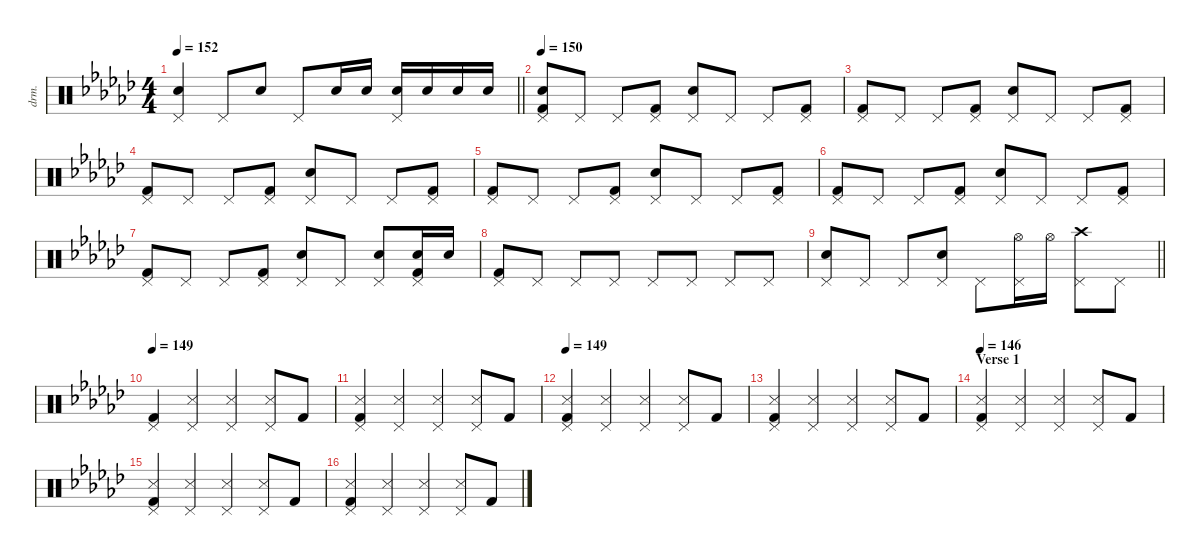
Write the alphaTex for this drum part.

\defaultSystemsLayout 4
\hideDynamics
\bracketExtendMode nobrackets
\otherSystemsTrackNameOrientation horizontal
\track ("Drums" "drm.") {defaultSystemsLayout 4 instrument percussion}
\staff {score}
\articulation defaults
\ts (4 4)
\tempo 152
\clef neutral
\barLineRight lightlight
\ks gb
("Pedal Hi-Hat (hit)"{acc forcenatural} "Snare (hit) 2"{acc forcenatural}).4{dy f beam Up} "Pedal Hi-Hat (hit)"{acc forcenatural}.8{beam Up} "Snare (hit) 2"{acc forcenatural}.8{dy mf beam Up} "Pedal Hi-Hat (hit)"{acc forcenatural}.8{dy f beam Up} "Snare (hit) 2"{acc forcenatural}.16{dy p beam Up} "Snare (hit) 2"{acc forcenatural}.16{dy mp beam Up} ("Pedal Hi-Hat (hit)"{acc forcenatural} "Snare (hit) 2"{acc forcenatural}).16{dy f beam Up} "Snare (hit) 2"{acc forcenatural}.16{dy mf beam Up} "Snare (hit) 2"{acc forcenatural}.16{dy f beam Up} "Snare (hit) 2"{acc forcenatural}.16{dy ff beam Up} |
\tempo 150
("Pedal Hi-Hat (hit)"{acc forcenatural} "Kick (hit) 2"{acc forcenatural} "Snare (hit) 2"{acc forcenatural}).8{dy f beam Up} "Pedal Hi-Hat (hit)"{acc forcenatural}.8{dy mp beam Up} "Pedal Hi-Hat (hit)"{acc forcenatural}.8{dy f beam Up} ("Pedal Hi-Hat (hit)"{acc forcenatural} "Kick (hit) 2"{acc forcenatural}).8{dy mp beam Up} ("Pedal Hi-Hat (hit)"{acc forcenatural} "Snare (hit) 2"{acc forcenatural}).8{dy f beam Up} "Pedal Hi-Hat (hit)"{acc forcenatural}.8{dy mp beam Up} "Pedal Hi-Hat (hit)"{acc forcenatural}.8{dy f beam Up} ("Pedal Hi-Hat (hit)"{acc forcenatural} "Kick (hit) 2"{acc forcenatural}).8{dy mp beam Up} |
("Pedal Hi-Hat (hit)"{acc forcenatural} "Kick (hit) 2"{acc forcenatural}).8{dy f beam Up} "Pedal Hi-Hat (hit)"{acc forcenatural}.8{dy mp beam Up} "Pedal Hi-Hat (hit)"{acc forcenatural}.8{dy f beam Up} ("Pedal Hi-Hat (hit)"{acc forcenatural} "Kick (hit) 2"{acc forcenatural}).8{dy mp beam Up} ("Pedal Hi-Hat (hit)"{acc forcenatural} "Snare (hit) 2"{acc forcenatural}).8{dy f beam Up} "Pedal Hi-Hat (hit)"{acc forcenatural}.8{dy mp beam Up} "Pedal Hi-Hat (hit)"{acc forcenatural}.8{dy f beam Up} ("Pedal Hi-Hat (hit)"{acc forcenatural} "Kick (hit) 2"{acc forcenatural}).8{dy mp beam Up} |
("Pedal Hi-Hat (hit)"{acc forcenatural} "Kick (hit) 2"{acc forcenatural}).8{dy f beam Up} "Pedal Hi-Hat (hit)"{acc forcenatural}.8{dy mp beam Up} "Pedal Hi-Hat (hit)"{acc forcenatural}.8{dy f beam Up} ("Pedal Hi-Hat (hit)"{acc forcenatural} "Kick (hit) 2"{acc forcenatural}).8{dy mp beam Up} ("Pedal Hi-Hat (hit)"{acc forcenatural} "Snare (hit) 2"{acc forcenatural}).8{dy f beam Up} "Pedal Hi-Hat (hit)"{acc forcenatural}.8{dy mp beam Up} "Pedal Hi-Hat (hit)"{acc forcenatural}.8{dy f beam Up} ("Pedal Hi-Hat (hit)"{acc forcenatural} "Kick (hit) 2"{acc forcenatural}).8{dy mp beam Up} |
("Pedal Hi-Hat (hit)"{acc forcenatural} "Kick (hit) 2"{acc forcenatural}).8{dy f beam Up} "Pedal Hi-Hat (hit)"{acc forcenatural}.8{dy mp beam Up} "Pedal Hi-Hat (hit)"{acc forcenatural}.8{dy f beam Up} ("Pedal Hi-Hat (hit)"{acc forcenatural} "Kick (hit) 2"{acc forcenatural}).8{dy mp beam Up} ("Pedal Hi-Hat (hit)"{acc forcenatural} "Snare (hit) 2"{acc forcenatural}).8{dy f beam Up} "Pedal Hi-Hat (hit)"{acc forcenatural}.8{dy mp beam Up} "Pedal Hi-Hat (hit)"{acc forcenatural}.8{dy f beam Up} ("Pedal Hi-Hat (hit)"{acc forcenatural} "Kick (hit) 2"{acc forcenatural}).8{dy mp beam Up} |
("Pedal Hi-Hat (hit)"{acc forcenatural} "Kick (hit) 2"{acc forcenatural}).8{dy f beam Up} "Pedal Hi-Hat (hit)"{acc forcenatural}.8{dy mp beam Up} "Pedal Hi-Hat (hit)"{acc forcenatural}.8{dy f beam Up} ("Pedal Hi-Hat (hit)"{acc forcenatural} "Kick (hit) 2"{acc forcenatural}).8{dy mp beam Up} ("Pedal Hi-Hat (hit)"{acc forcenatural} "Snare (hit) 2"{acc forcenatural}).8{dy f beam Up} "Pedal Hi-Hat (hit)"{acc forcenatural}.8{dy mp beam Up} "Pedal Hi-Hat (hit)"{acc forcenatural}.8{dy f beam Up} ("Pedal Hi-Hat (hit)"{acc forcenatural} "Kick (hit) 2"{acc forcenatural}).8{dy mp beam Up} |
("Pedal Hi-Hat (hit)"{acc forcenatural} "Kick (hit) 2"{acc forcenatural}).8{dy f beam Up} "Pedal Hi-Hat (hit)"{acc forcenatural}.8{dy mp beam Up} "Pedal Hi-Hat (hit)"{acc forcenatural}.8{dy f beam Up} ("Pedal Hi-Hat (hit)"{acc forcenatural} "Kick (hit) 2"{acc forcenatural}).8{dy mp beam Up} ("Pedal Hi-Hat (hit)"{acc forcenatural} "Snare (hit) 2"{acc forcenatural}).8{dy f beam Up} "Pedal Hi-Hat (hit)"{acc forcenatural}.8{dy mp beam Up} ("Pedal Hi-Hat (hit)"{acc forcenatural} "Snare (hit) 2"{acc forcenatural}).8{dy f beam Up} ("Pedal Hi-Hat (hit)"{acc forcenatural} "Snare (hit) 2"{acc forcenatural} "Kick (hit) 2"{acc forcenatural}).16{dy mp beam Up} "Snare (hit) 2"{acc forcenatural}.16{dy f beam Up} |
("Pedal Hi-Hat (hit)"{acc forcenatural} "Kick (hit) 2"{acc forcenatural}).8{beam Up} "Pedal Hi-Hat (hit)"{acc forcenatural}.8{dy mp beam Up} "Pedal Hi-Hat (hit)"{acc forcenatural}.8{dy f beam Up} "Pedal Hi-Hat (hit)"{acc forcenatural}.8{dy mp beam Up} "Pedal Hi-Hat (hit)"{acc forcenatural}.8{dy f beam Up} "Pedal Hi-Hat (hit)"{acc forcenatural}.8{dy mp beam Up} "Pedal Hi-Hat (hit)"{acc forcenatural}.8{dy f beam Up} "Pedal Hi-Hat (hit)"{acc forcenatural}.8{dy mp beam Up} |
\barLineRight lightlight
("Pedal Hi-Hat (hit)"{acc forcenatural} "Snare (hit) 2"{acc forcenatural}).8{dy f beam Up} "Pedal Hi-Hat (hit)"{acc forcenatural}.8{dy mp beam Up} "Pedal Hi-Hat (hit)"{acc forcenatural}.8{dy f beam Up} ("Pedal Hi-Hat (hit)"{acc forcenatural} "Snare (hit) 2"{acc forcenatural}).8{dy mp beam Up} "Pedal Hi-Hat (hit)"{acc forcenatural}.8{dy f beam Down} ("Pedal Hi-Hat (hit)"{acc forcenatural} "Hi-Hat (open)"{acc forcenatural}).16{dy mp beam Down} "Hi-Hat (open)"{acc forcenatural}.16{dy f beam Down} ("Pedal Hi-Hat (hit)"{acc forcenatural} "Crash high (hit)"{acc forcenatural}).8{beam Down} "Pedal Hi-Hat (hit)"{acc forcenatural}.8{dy mp beam Down} |
\tempo 149
("Pedal Hi-Hat (hit)"{acc forcenatural} "Kick (hit) 2"{acc forcenatural}).4{dy f beam Up} ("Pedal Hi-Hat (hit)"{acc forcenatural} "Snare (side stick) 3"{acc forcenatural}).4{beam Up} ("Pedal Hi-Hat (hit)"{acc forcenatural} "Snare (side stick) 3"{acc forcenatural}).4{beam Up} ("Pedal Hi-Hat (hit)"{acc forcenatural} "Snare (side stick) 3"{acc forcenatural}).8{beam Up} "Kick (hit) 2"{acc forcenatural}.8{beam Up} |
("Pedal Hi-Hat (hit)"{acc forcenatural} "Kick (hit) 2"{acc forcenatural} "Snare (side stick) 3"{acc forcenatural}).4{beam Up} ("Pedal Hi-Hat (hit)"{acc forcenatural} "Snare (side stick) 3"{acc forcenatural}).4{beam Up} ("Pedal Hi-Hat (hit)"{acc forcenatural} "Snare (side stick) 3"{acc forcenatural}).4{beam Up} ("Pedal Hi-Hat (hit)"{acc forcenatural} "Snare (side stick) 3"{acc forcenatural}).8{beam Up} "Kick (hit) 2"{acc forcenatural}.8{beam Up} |
\tempo 149
("Pedal Hi-Hat (hit)"{acc forcenatural} "Kick (hit) 2"{acc forcenatural} "Snare (side stick) 3"{acc forcenatural}).4{beam Up} ("Pedal Hi-Hat (hit)"{acc forcenatural} "Snare (side stick) 3"{acc forcenatural}).4{beam Up} ("Pedal Hi-Hat (hit)"{acc forcenatural} "Snare (side stick) 3"{acc forcenatural}).4{beam Up} ("Pedal Hi-Hat (hit)"{acc forcenatural} "Snare (side stick) 3"{acc forcenatural}).8{beam Up} "Kick (hit) 2"{acc forcenatural}.8{beam Up} |
("Pedal Hi-Hat (hit)"{acc forcenatural} "Kick (hit) 2"{acc forcenatural} "Snare (side stick) 3"{acc forcenatural}).4{beam Up} ("Pedal Hi-Hat (hit)"{acc forcenatural} "Snare (side stick) 3"{acc forcenatural}).4{beam Up} ("Pedal Hi-Hat (hit)"{acc forcenatural} "Snare (side stick) 3"{acc forcenatural}).4{beam Up} ("Pedal Hi-Hat (hit)"{acc forcenatural} "Snare (side stick) 3"{acc forcenatural}).8{beam Up} "Kick (hit) 2"{acc forcenatural}.8{beam Up} |
\section ("" "Verse 1")
\tempo 146
("Pedal Hi-Hat (hit)"{acc forcenatural} "Kick (hit) 2"{acc forcenatural} "Snare (side stick) 3"{acc forcenatural}).4{beam Up} ("Pedal Hi-Hat (hit)"{acc forcenatural} "Snare (side stick) 3"{acc forcenatural}).4{beam Up} ("Pedal Hi-Hat (hit)"{acc forcenatural} "Snare (side stick) 3"{acc forcenatural}).4{beam Up} ("Pedal Hi-Hat (hit)"{acc forcenatural} "Snare (side stick) 3"{acc forcenatural}).8{beam Up} "Kick (hit) 2"{acc forcenatural}.8{beam Up} |
("Pedal Hi-Hat (hit)"{acc forcenatural} "Kick (hit) 2"{acc forcenatural} "Snare (side stick) 3"{acc forcenatural}).4{beam Up} ("Pedal Hi-Hat (hit)"{acc forcenatural} "Snare (side stick) 3"{acc forcenatural}).4{beam Up} ("Pedal Hi-Hat (hit)"{acc forcenatural} "Snare (side stick) 3"{acc forcenatural}).4{beam Up} ("Pedal Hi-Hat (hit)"{acc forcenatural} "Snare (side stick) 3"{acc forcenatural}).8{beam Up} "Kick (hit) 2"{acc forcenatural}.8{beam Up} |
("Pedal Hi-Hat (hit)"{acc forcenatural} "Kick (hit) 2"{acc forcenatural} "Snare (side stick) 3"{acc forcenatural}).4{beam Up} ("Pedal Hi-Hat (hit)"{acc forcenatural} "Snare (side stick) 3"{acc forcenatural}).4{beam Up} ("Pedal Hi-Hat (hit)"{acc forcenatural} "Snare (side stick) 3"{acc forcenatural}).4{beam Up} ("Pedal Hi-Hat (hit)"{acc forcenatural} "Snare (side stick) 3"{acc forcenatural}).8{beam Up} "Kick (hit) 2"{acc forcenatural}.8{beam Up}
